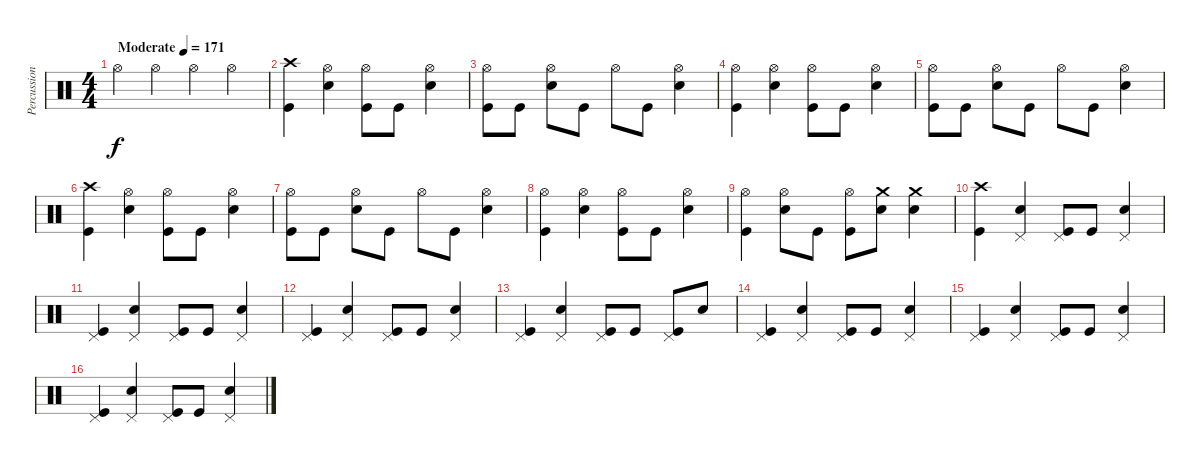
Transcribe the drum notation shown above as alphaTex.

\track ("Percussion" "Percussion") {instrument percussion}
\staff {score}
\articulation defaults
\ts (4 4)
\tempo (171 "Moderate")
\clef neutral
\ks c "Hi-Hat (open)".4{dy f} "Hi-Hat (open)".4 "Hi-Hat (open)".4 "Hi-Hat (open)".4
|
("Crash high (hit)" "Kick (hit)").4 ("Hi-Hat (open)" "Electric Snare (hit)").4 ("Hi-Hat (open)" "Kick (hit)").8 "Kick (hit)".8 ("Hi-Hat (open)" "Electric Snare (hit)").4 |
("Hi-Hat (open)" "Kick (hit)").8 "Kick (hit)".8 ("Hi-Hat (open)" "Electric Snare (hit)").8 "Kick (hit)".8 "Hi-Hat (open)".8 "Kick (hit)".8 ("Hi-Hat (open)" "Electric Snare (hit)").4 |
("Hi-Hat (open)" "Kick (hit)").4 ("Hi-Hat (open)" "Electric Snare (hit)").4 ("Hi-Hat (open)" "Kick (hit)").8 "Kick (hit)".8 ("Hi-Hat (open)" "Electric Snare (hit)").4 |
("Hi-Hat (open)" "Kick (hit)").8 "Kick (hit)".8 ("Hi-Hat (open)" "Electric Snare (hit)").8 "Kick (hit)".8 "Hi-Hat (open)".8 "Kick (hit)".8 ("Hi-Hat (open)" "Electric Snare (hit)").4 |
("Crash high (hit)" "Kick (hit)").4 ("Hi-Hat (open)" "Electric Snare (hit)").4 ("Hi-Hat (open)" "Kick (hit)").8 "Kick (hit)".8 ("Hi-Hat (open)" "Electric Snare (hit)").4 |
("Hi-Hat (open)" "Kick (hit)").8 "Kick (hit)".8 ("Hi-Hat (open)" "Electric Snare (hit)").8 "Kick (hit)".8 "Hi-Hat (open)".8 "Kick (hit)".8 ("Hi-Hat (open)" "Electric Snare (hit)").4 |
("Hi-Hat (open)" "Kick (hit)").4 ("Hi-Hat (open)" "Electric Snare (hit)").4 ("Hi-Hat (open)" "Kick (hit)").8 "Kick (hit)".8 ("Hi-Hat (open)" "Electric Snare (hit)").4 |
("Hi-Hat (open)" "Kick (hit)").4 ("Hi-Hat (open)" "Electric Snare (hit)").8 "Kick (hit)".8 ("Hi-Hat (open)" "Kick (hit)").8 ("Crash medium (hit)" "Electric Snare (hit)").8 ("Crash medium (hit)" "Electric Snare (hit)").4 |
("Crash high (hit)" "Kick (hit)").4 ("Pedal Hi-Hat (hit)" "Electric Snare (hit)").4 ("Pedal Hi-Hat (hit)" "Kick (hit)").8 "Kick (hit)".8 ("Pedal Hi-Hat (hit)" "Electric Snare (hit)").4 |
("Pedal Hi-Hat (hit)" "Kick (hit)").4 ("Pedal Hi-Hat (hit)" "Electric Snare (hit)").4 ("Pedal Hi-Hat (hit)" "Kick (hit)").8 "Kick (hit)".8 ("Pedal Hi-Hat (hit)" "Electric Snare (hit)").4 |
("Pedal Hi-Hat (hit)" "Kick (hit)").4 ("Pedal Hi-Hat (hit)" "Electric Snare (hit)").4 ("Pedal Hi-Hat (hit)" "Kick (hit)").8 "Kick (hit)".8 ("Pedal Hi-Hat (hit)" "Electric Snare (hit)").4 |
("Pedal Hi-Hat (hit)" "Kick (hit)").4 ("Pedal Hi-Hat (hit)" "Electric Snare (hit)").4 ("Pedal Hi-Hat (hit)" "Kick (hit)").8 "Kick (hit)".8 ("Pedal Hi-Hat (hit)" "Kick (hit)").8 "Electric Snare (hit)".8 |
("Pedal Hi-Hat (hit)" "Kick (hit)").4 ("Pedal Hi-Hat (hit)" "Electric Snare (hit)").4 ("Pedal Hi-Hat (hit)" "Kick (hit)").8 "Kick (hit)".8 ("Pedal Hi-Hat (hit)" "Electric Snare (hit)").4 |
("Pedal Hi-Hat (hit)" "Kick (hit)").4 ("Pedal Hi-Hat (hit)" "Electric Snare (hit)").4 ("Pedal Hi-Hat (hit)" "Kick (hit)").8 "Kick (hit)".8 ("Pedal Hi-Hat (hit)" "Electric Snare (hit)").4 |
("Pedal Hi-Hat (hit)" "Kick (hit)").4 ("Pedal Hi-Hat (hit)" "Electric Snare (hit)").4 ("Pedal Hi-Hat (hit)" "Kick (hit)").8 "Kick (hit)".8 ("Pedal Hi-Hat (hit)" "Electric Snare (hit)").4
